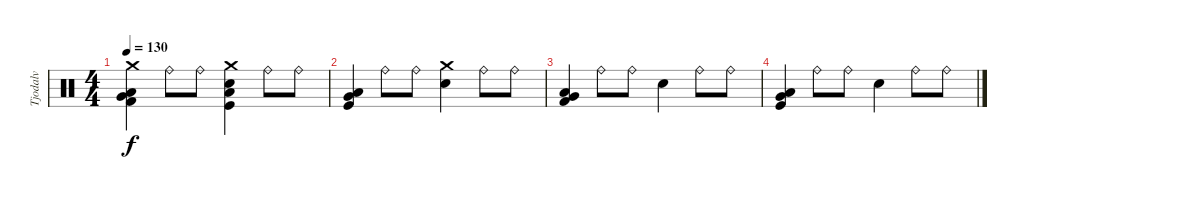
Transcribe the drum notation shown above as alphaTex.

\track ("Tjodalv" "Tjodalv") {instrument percussion}
\staff {score}
\articulation defaults
\ts (4 4)
\tempo 130
\clef neutral
\ks c
("Crash medium (hit)" "Low Floor Tom (hit)" "Very Low Tom (hit)" "Kick (hit) 2").4{dy f volume 3} "Ride (bell)".8{volume 3} "Ride (bell)".8{volume 3} ("Crash medium (hit)" "Snare (hit) 2" "Low Floor Tom (hit)" "Kick (hit)").4{volume 2} "Ride (bell)".8{volume 2} "Ride (bell)".8{volume 2} |
("Low Floor Tom (hit)" "Very Low Tom (hit)" "Kick (hit)").4{volume 1} "Ride (bell)".8{volume 1} "Ride (bell)".8{volume 1} ("Snare (hit) 2" "Crash medium (hit)").4{volume 1} "Ride (bell)".8{volume 1} "Ride (bell)".8{volume 1} |
("Low Floor Tom (hit)" "Very Low Tom (hit)" "Kick (hit) 2").4{volume 0} "Ride (bell)".8{volume 0} "Ride (bell)".8{volume 0} "Snare (hit) 2".4{volume 0} "Ride (bell)".8{volume 0} "Ride (bell)".8{volume 0} |
("Low Floor Tom (hit)" "Very Low Tom (hit)" "Kick (hit)").4{volume 0} "Ride (bell)".8{volume 0} "Ride (bell)".8{volume 0} "Snare (hit) 2".4{volume 0} "Ride (bell)".8{volume 0} "Ride (bell)".8{volume 0}
